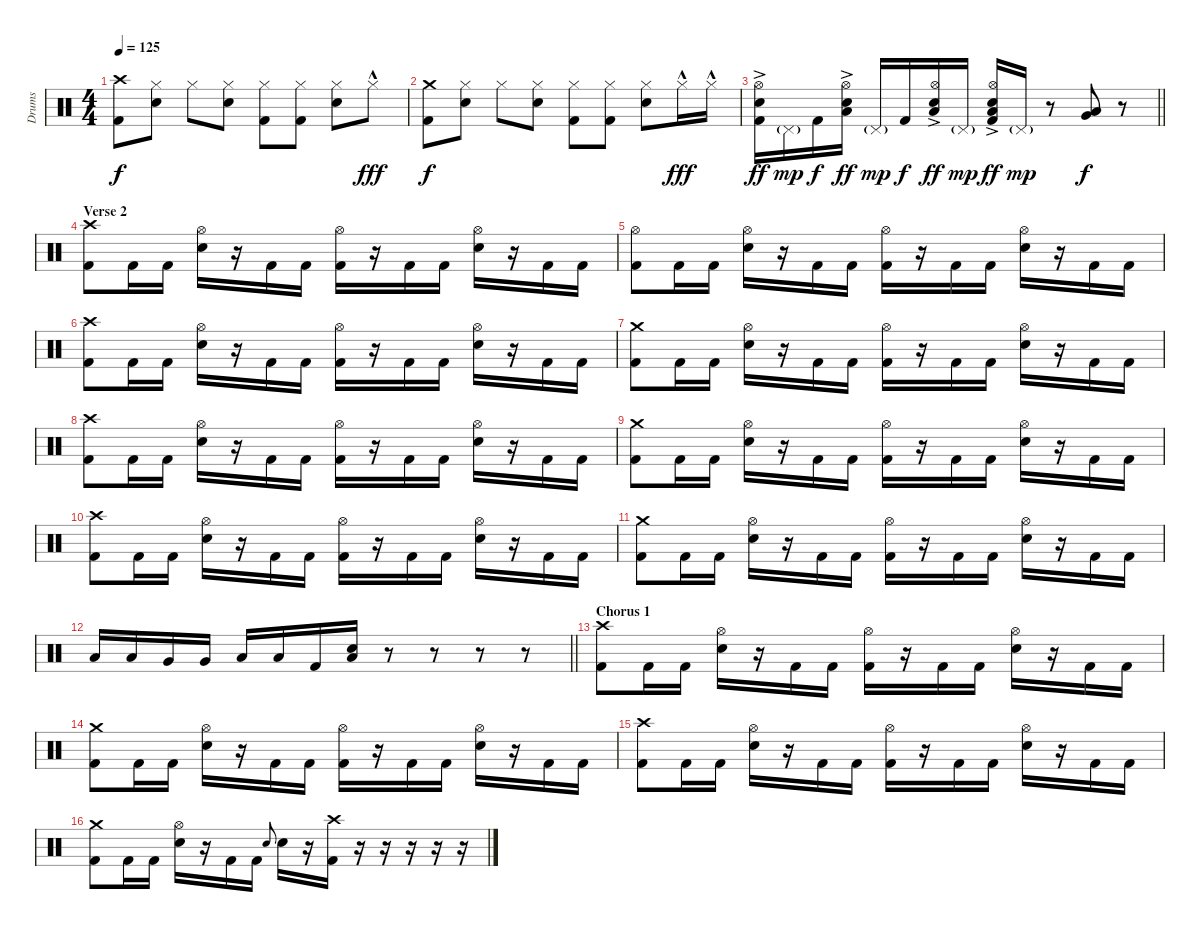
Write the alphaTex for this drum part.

\track ("Drums" "Drums") {instrument percussion}
\staff {score}
\articulation defaults
\ts (4 4)
\tempo 125
\clef neutral
\ks c
("Crash high (hit)" "Kick (hit) 2").8{dy f} ("Hi-Hat (closed)" "Snare (hit) 2").8 "Hi-Hat (closed)".8 ("Hi-Hat (closed)" "Snare (hit) 2").8 ("Hi-Hat (closed)" "Kick (hit) 2").8 ("Hi-Hat (closed)" "Kick (hit) 2").8 ("Hi-Hat (closed)" "Snare (hit) 2").8 "Hi-Hat (closed)"{hac}.8{dy fff} |
("Crash medium (hit)" "Kick (hit) 2").8{dy f} ("Hi-Hat (closed)" "Snare (hit) 2").8 "Hi-Hat (closed)".8 ("Hi-Hat (closed)" "Snare (hit) 2").8 ("Hi-Hat (closed)" "Kick (hit) 2").8 ("Hi-Hat (closed)" "Kick (hit) 2").8 ("Hi-Hat (closed)" "Snare (hit) 2").8 "Hi-Hat (closed)"{hac}.16{dy fff} "Hi-Hat (closed)"{hac}.16 |
\barLineRight lightlight
("Hi-Hat (open)"{ac} "Snare (hit) 2" "Kick (hit) 2").16{dy ff} "Pedal Hi-Hat (hit)"{g}.16{dy mp} "Kick (hit) 2".16{dy f} ("Hi-Hat (open)"{ac} "Low Floor Tom (hit)" "Snare (hit) 2").16{dy ff} "Pedal Hi-Hat (hit)"{g}.16{dy mp} "Kick (hit) 2".16{dy f} ("Hi-Hat (open)"{ac} "Low Floor Tom (hit)" "Snare (hit) 2").16{dy ff} "Pedal Hi-Hat (hit)"{g}.16{dy mp} ("Hi-Hat (open)"{ac} "Low Floor Tom (hit)" "Snare (hit) 2" "Kick (hit) 2").16{dy ff} "Pedal Hi-Hat (hit)"{g}.16{dy mp} r.8 ("Very Low Tom (hit)" "Low Floor Tom (hit)").8{dy f} r.8 |
\section ("" "Verse 2")
("Crash high (hit)" "Kick (hit) 2").8 "Kick (hit) 2".16 "Kick (hit) 2".16 ("Hi-Hat (open)" "Snare (hit) 2").16 r.16 "Kick (hit) 2".16 "Kick (hit) 2".16 ("Hi-Hat (open)" "Kick (hit) 2").16 r.16 "Kick (hit) 2".16 "Kick (hit) 2".16 ("Hi-Hat (open)" "Snare (hit) 2").16 r.16 "Kick (hit) 2".16 "Kick (hit) 2".16 |
("Hi-Hat (open)" "Kick (hit) 2").8 "Kick (hit) 2".16 "Kick (hit) 2".16 ("Hi-Hat (open)" "Snare (hit) 2").16 r.16 "Kick (hit) 2".16 "Kick (hit) 2".16 ("Hi-Hat (open)" "Kick (hit) 2").16 r.16 "Kick (hit) 2".16 "Kick (hit) 2".16 ("Hi-Hat (open)" "Snare (hit) 2").16 r.16 "Kick (hit) 2".16 "Kick (hit) 2".16 |
("Crash high (hit)" "Kick (hit) 2").8 "Kick (hit) 2".16 "Kick (hit) 2".16 ("Hi-Hat (open)" "Snare (hit) 2").16 r.16 "Kick (hit) 2".16 "Kick (hit) 2".16 ("Hi-Hat (open)" "Kick (hit) 2").16 r.16 "Kick (hit) 2".16 "Kick (hit) 2".16 ("Hi-Hat (open)" "Snare (hit) 2").16 r.16 "Kick (hit) 2".16 "Kick (hit) 2".16 |
("Crash medium (hit)" "Kick (hit) 2").8 "Kick (hit) 2".16 "Kick (hit) 2".16 ("Hi-Hat (open)" "Snare (hit) 2").16 r.16 "Kick (hit) 2".16 "Kick (hit) 2".16 ("Hi-Hat (open)" "Kick (hit) 2").16 r.16 "Kick (hit) 2".16 "Kick (hit) 2".16 ("Hi-Hat (open)" "Snare (hit) 2").16 r.16 "Kick (hit) 2".16 "Kick (hit) 2".16 |
("Crash high (hit)" "Kick (hit) 2").8 "Kick (hit) 2".16 "Kick (hit) 2".16 ("Hi-Hat (open)" "Snare (hit) 2").16 r.16 "Kick (hit) 2".16 "Kick (hit) 2".16 ("Hi-Hat (open)" "Kick (hit) 2").16 r.16 "Kick (hit) 2".16 "Kick (hit) 2".16 ("Hi-Hat (open)" "Snare (hit) 2").16 r.16 "Kick (hit) 2".16 "Kick (hit) 2".16 |
("Crash medium (hit)" "Kick (hit) 2").8 "Kick (hit) 2".16 "Kick (hit) 2".16 ("Hi-Hat (open)" "Snare (hit) 2").16 r.16 "Kick (hit) 2".16 "Kick (hit) 2".16 ("Hi-Hat (open)" "Kick (hit) 2").16 r.16 "Kick (hit) 2".16 "Kick (hit) 2".16 ("Hi-Hat (open)" "Snare (hit) 2").16 r.16 "Kick (hit) 2".16 "Kick (hit) 2".16 |
("Crash high (hit)" "Kick (hit) 2").8 "Kick (hit) 2".16 "Kick (hit) 2".16 ("Hi-Hat (open)" "Snare (hit) 2").16 r.16 "Kick (hit) 2".16 "Kick (hit) 2".16 ("Hi-Hat (open)" "Kick (hit) 2").16 r.16 "Kick (hit) 2".16 "Kick (hit) 2".16 ("Hi-Hat (open)" "Snare (hit) 2").16 r.16 "Kick (hit) 2".16 "Kick (hit) 2".16 |
("Crash medium (hit)" "Kick (hit) 2").8 "Kick (hit) 2".16 "Kick (hit) 2".16 ("Hi-Hat (open)" "Snare (hit) 2").16 r.16 "Kick (hit) 2".16 "Kick (hit) 2".16 ("Hi-Hat (open)" "Kick (hit) 2").16 r.16 "Kick (hit) 2".16 "Kick (hit) 2".16 ("Hi-Hat (open)" "Snare (hit) 2").16 r.16 "Kick (hit) 2".16 "Kick (hit) 2".16 |
\barLineRight lightlight "Low Tom (hit)".16 "Low Tom (hit)".16 "Very Low Tom (hit)".16 "Very Low Tom (hit)".16 "Low Floor Tom (hit)".16 "Low Floor Tom (hit)".16 "Kick (hit) 2".16
("Low Floor Tom (hit)" "Snare (hit) 2").16 r.8 r.8 r.8 r.8 |
\section ("" "Chorus 1")
("Crash high (hit)" "Kick (hit) 2").8 "Kick (hit) 2".16 "Kick (hit) 2".16 ("Hi-Hat (open)" "Snare (hit) 2").16 r.16 "Kick (hit) 2".16 "Kick (hit) 2".16 ("Hi-Hat (open)" "Kick (hit) 2").16 r.16 "Kick (hit) 2".16 "Kick (hit) 2".16 ("Hi-Hat (open)" "Snare (hit) 2").16 r.16 "Kick (hit) 2".16 "Kick (hit) 2".16 |
("Crash medium (hit)" "Kick (hit) 2").8 "Kick (hit) 2".16 "Kick (hit) 2".16 ("Hi-Hat (open)" "Snare (hit) 2").16 r.16 "Kick (hit) 2".16 "Kick (hit) 2".16 ("Hi-Hat (open)" "Kick (hit) 2").16 r.16 "Kick (hit) 2".16 "Kick (hit) 2".16 ("Hi-Hat (open)" "Snare (hit) 2").16 r.16 "Kick (hit) 2".16 "Kick (hit) 2".16 |
("Crash high (hit)" "Kick (hit) 2").8 "Kick (hit) 2".16 "Kick (hit) 2".16 ("Hi-Hat (open)" "Snare (hit) 2").16 r.16 "Kick (hit) 2".16 "Kick (hit) 2".16 ("Hi-Hat (open)" "Kick (hit) 2").16 r.16 "Kick (hit) 2".16 "Kick (hit) 2".16 ("Hi-Hat (open)" "Snare (hit) 2").16 r.16 "Kick (hit) 2".16 "Kick (hit) 2".16 |
("Crash medium (hit)" "Kick (hit) 2").8 "Kick (hit) 2".16 "Kick (hit) 2".16 ("Hi-Hat (open)" "Snare (hit) 2").16 r.16 "Kick (hit) 2".16 "Kick (hit) 2".16 "Snare (hit) 2".8{gr onbeat} "Snare (hit) 2".16 r.16 ("Crash high (hit)" "Kick (hit) 2").16 r.16 r.16 r.16 r.16 r.16
